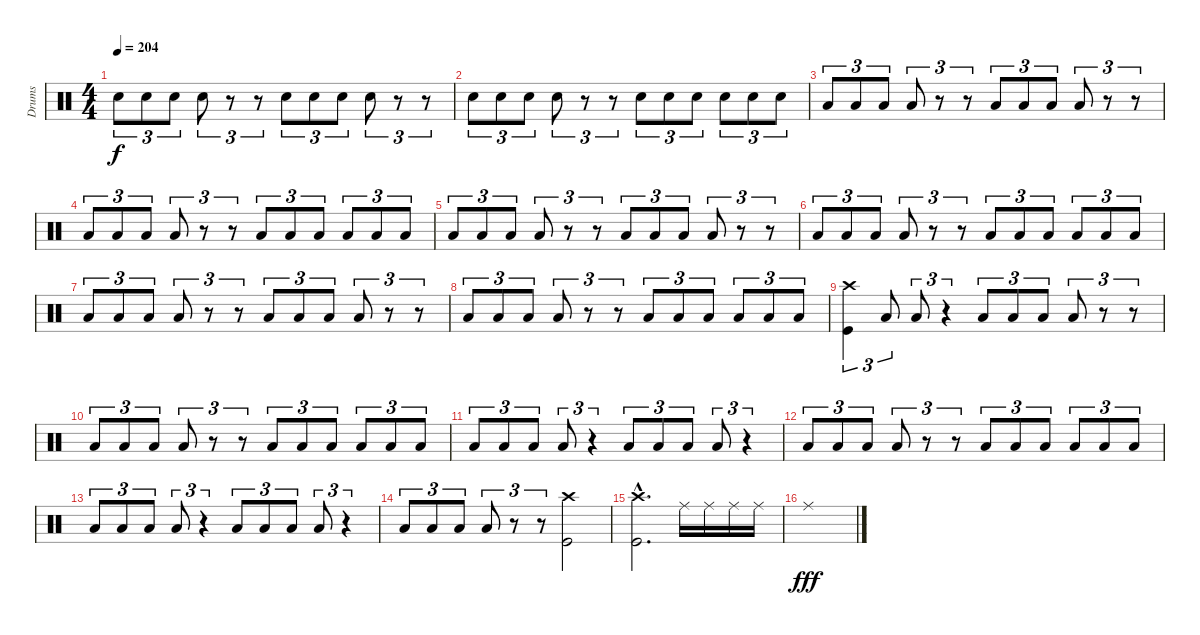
\track ("Drums" "Drums") {instrument percussion}
\staff {score}
\articulation defaults
\ts (4 4)
\tempo 204
\clef neutral
\ks c "Snare (hit) 2".8{tu (3 2) dy f} "Snare (hit) 2".8{tu (3 2)} "Snare (hit) 2".8{tu (3 2)} "Snare (hit) 2".8{tu (3 2)}
r.8{tu (3 2)} r.8{tu (3 2)} "Snare (hit) 2".8{tu (3 2)} "Snare (hit) 2".8{tu (3 2)} "Snare (hit) 2".8{tu (3 2)} "Snare (hit) 2".8{tu (3 2)} r.8{tu (3 2)} r.8{tu (3 2)} |
"Snare (hit) 2".8{tu (3 2)} "Snare (hit) 2".8{tu (3 2)} "Snare (hit) 2".8{tu (3 2)} "Snare (hit) 2".8{tu (3 2)} r.8{tu (3 2)} r.8{tu (3 2)} "Snare (hit) 2".8{tu (3 2)} "Snare (hit) 2".8{tu (3 2)} "Snare (hit) 2".8{tu (3 2)} "Snare (hit) 2".8{tu (3 2)} "Snare (hit) 2".8{tu (3 2)} "Snare (hit) 2".8{tu (3 2)} |
"Low Tom (hit)".8{tu (3 2)} "Low Tom (hit)".8{tu (3 2)} "Low Tom (hit)".8{tu (3 2)} "Low Tom (hit)".8{tu (3 2)} r.8{tu (3 2)} r.8{tu (3 2)} "Low Tom (hit)".8{tu (3 2)} "Low Tom (hit)".8{tu (3 2)} "Low Tom (hit)".8{tu (3 2)} "Low Tom (hit)".8{tu (3 2)} r.8{tu (3 2)} r.8{tu (3 2)} |
"Low Tom (hit)".8{tu (3 2)} "Low Tom (hit)".8{tu (3 2)} "Low Tom (hit)".8{tu (3 2)} "Low Tom (hit)".8{tu (3 2)} r.8{tu (3 2)} r.8{tu (3 2)} "Low Tom (hit)".8{tu (3 2)} "Low Tom (hit)".8{tu (3 2)} "Low Tom (hit)".8{tu (3 2)} "Low Tom (hit)".8{tu (3 2)} "Low Tom (hit)".8{tu (3 2)} "Low Tom (hit)".8{tu (3 2)} |
"Low Tom (hit)".8{tu (3 2)} "Low Tom (hit)".8{tu (3 2)} "Low Tom (hit)".8{tu (3 2)} "Low Tom (hit)".8{tu (3 2)} r.8{tu (3 2)} r.8{tu (3 2)} "Low Tom (hit)".8{tu (3 2)} "Low Tom (hit)".8{tu (3 2)} "Low Tom (hit)".8{tu (3 2)} "Low Tom (hit)".8{tu (3 2)} r.8{tu (3 2)} r.8{tu (3 2)} |
"Low Tom (hit)".8{tu (3 2)} "Low Tom (hit)".8{tu (3 2)} "Low Tom (hit)".8{tu (3 2)} "Low Tom (hit)".8{tu (3 2)} r.8{tu (3 2)} r.8{tu (3 2)} "Low Tom (hit)".8{tu (3 2)} "Low Tom (hit)".8{tu (3 2)} "Low Tom (hit)".8{tu (3 2)} "Low Tom (hit)".8{tu (3 2)} "Low Tom (hit)".8{tu (3 2)} "Low Tom (hit)".8{tu (3 2)} |
"Low Tom (hit)".8{tu (3 2)} "Low Tom (hit)".8{tu (3 2)} "Low Tom (hit)".8{tu (3 2)} "Low Tom (hit)".8{tu (3 2)} r.8{tu (3 2)} r.8{tu (3 2)} "Low Tom (hit)".8{tu (3 2)} "Low Tom (hit)".8{tu (3 2)} "Low Tom (hit)".8{tu (3 2)} "Low Tom (hit)".8{tu (3 2)} r.8{tu (3 2)} r.8{tu (3 2)} |
"Low Tom (hit)".8{tu (3 2)} "Low Tom (hit)".8{tu (3 2)} "Low Tom (hit)".8{tu (3 2)} "Low Tom (hit)".8{tu (3 2)} r.8{tu (3 2)} r.8{tu (3 2)} "Low Tom (hit)".8{tu (3 2)} "Low Tom (hit)".8{tu (3 2)} "Low Tom (hit)".8{tu (3 2)} "Low Tom (hit)".8{tu (3 2)} "Low Tom (hit)".8{tu (3 2)} "Low Tom (hit)".8{tu (3 2)} |
("Crash high (hit)" "Kick (hit)").4{tu (3 2)} "Low Tom (hit)".8{tu (3 2)} "Low Tom (hit)".8{tu (3 2)} r.4{tu (3 2)} "Low Tom (hit)".8{tu (3 2)} "Low Tom (hit)".8{tu (3 2)} "Low Tom (hit)".8{tu (3 2)} "Low Tom (hit)".8{tu (3 2)} r.8{tu (3 2)} r.8{tu (3 2)} |
"Low Tom (hit)".8{tu (3 2)} "Low Tom (hit)".8{tu (3 2)} "Low Tom (hit)".8{tu (3 2)} "Low Tom (hit)".8{tu (3 2)} r.8{tu (3 2)} r.8{tu (3 2)} "Low Tom (hit)".8{tu (3 2)} "Low Tom (hit)".8{tu (3 2)} "Low Tom (hit)".8{tu (3 2)} "Low Tom (hit)".8{tu (3 2)} "Low Tom (hit)".8{tu (3 2)} "Low Tom (hit)".8{tu (3 2)} |
"Low Tom (hit)".8{tu (3 2)} "Low Tom (hit)".8{tu (3 2)} "Low Tom (hit)".8{tu (3 2)} "Low Tom (hit)".8{tu (3 2)} r.4{tu (3 2)} "Low Tom (hit)".8{tu (3 2)} "Low Tom (hit)".8{tu (3 2)} "Low Tom (hit)".8{tu (3 2)} "Low Tom (hit)".8{tu (3 2)} r.4{tu (3 2)} |
"Low Tom (hit)".8{tu (3 2)} "Low Tom (hit)".8{tu (3 2)} "Low Tom (hit)".8{tu (3 2)} "Low Tom (hit)".8{tu (3 2)} r.8{tu (3 2)} r.8{tu (3 2)} "Low Tom (hit)".8{tu (3 2)} "Low Tom (hit)".8{tu (3 2)} "Low Tom (hit)".8{tu (3 2)} "Low Tom (hit)".8{tu (3 2)} "Low Tom (hit)".8{tu (3 2)} "Low Tom (hit)".8{tu (3 2)} |
"Low Tom (hit)".8{tu (3 2)} "Low Tom (hit)".8{tu (3 2)} "Low Tom (hit)".8{tu (3 2)} "Low Tom (hit)".8{tu (3 2)} r.4{tu (3 2)} "Low Tom (hit)".8{tu (3 2)} "Low Tom (hit)".8{tu (3 2)} "Low Tom (hit)".8{tu (3 2)} "Low Tom (hit)".8{tu (3 2)} r.4{tu (3 2)} |
"Low Tom (hit)".8{tu (3 2)} "Low Tom (hit)".8{tu (3 2)} "Low Tom (hit)".8{tu (3 2)} "Low Tom (hit)".8{tu (3 2)} r.8{tu (3 2)} r.8{tu (3 2)} ("Crash high (hit)" "Kick (hit)").2 |
("Crash high (hit)"{hac} "Kick (hit)"{hac}).2{d} "Ride (middle)".16 "Ride (middle)".16 "Ride (middle)".16 "Ride (middle)".16 |
"Ride (middle)".1{dy fff}
